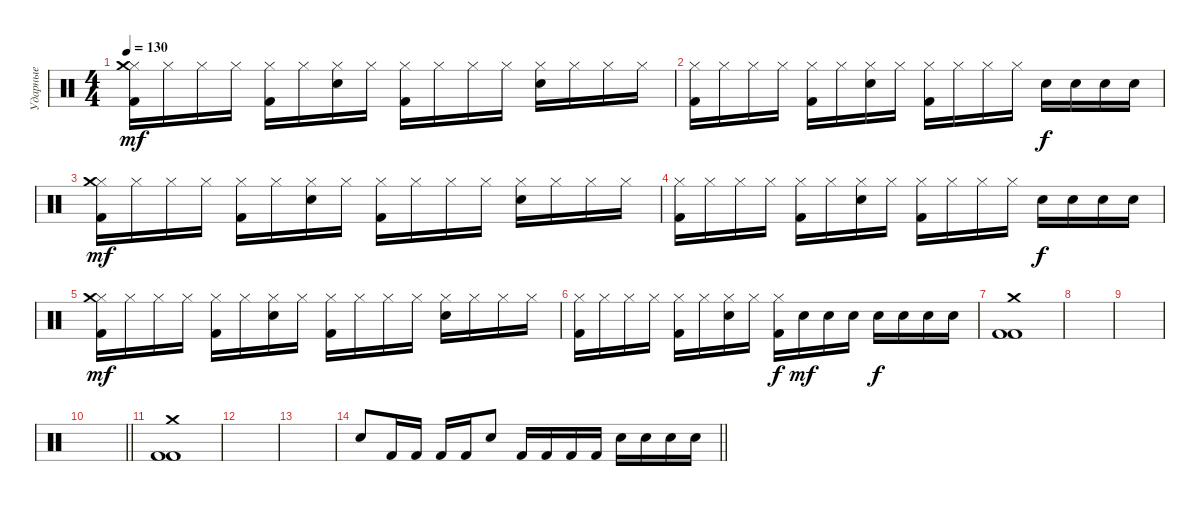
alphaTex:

\track ("Ударные" "Ударные") {instrument percussion}
\staff {score}
\articulation defaults
\ts (4 4)
\tempo 130
\clef neutral
\ks c
("Hi-Hat (closed)" "Crash medium (hit)" "Kick (hit) 2").16{dy mf} "Hi-Hat (closed)".16 "Hi-Hat (closed)".16 "Hi-Hat (closed)".16 ("Hi-Hat (closed)" "Kick (hit) 2").16 "Hi-Hat (closed)".16 ("Hi-Hat (closed)" "Electric Snare (hit)").16 "Hi-Hat (closed)".16 ("Hi-Hat (closed)" "Kick (hit) 2").16 "Hi-Hat (closed)".16 "Hi-Hat (closed)".16 "Hi-Hat (closed)".16 ("Hi-Hat (closed)" "Electric Snare (hit)").16 "Hi-Hat (closed)".16 "Hi-Hat (closed)".16 "Hi-Hat (closed)".16 |
("Hi-Hat (closed)" "Kick (hit) 2").16 "Hi-Hat (closed)".16 "Hi-Hat (closed)".16 "Hi-Hat (closed)".16 ("Hi-Hat (closed)" "Kick (hit) 2").16 "Hi-Hat (closed)".16 ("Hi-Hat (closed)" "Electric Snare (hit)").16 "Hi-Hat (closed)".16 ("Hi-Hat (closed)" "Kick (hit) 2").16 "Hi-Hat (closed)".16 "Hi-Hat (closed)".16 "Hi-Hat (closed)".16 "Electric Snare (hit)".16{dy f} "Electric Snare (hit)".16 "Electric Snare (hit)".16 "Electric Snare (hit)".16 |
("Hi-Hat (closed)" "Crash medium (hit)" "Kick (hit) 2").16{dy mf} "Hi-Hat (closed)".16 "Hi-Hat (closed)".16 "Hi-Hat (closed)".16 ("Hi-Hat (closed)" "Kick (hit) 2").16 "Hi-Hat (closed)".16 ("Hi-Hat (closed)" "Electric Snare (hit)").16 "Hi-Hat (closed)".16 ("Hi-Hat (closed)" "Kick (hit) 2").16 "Hi-Hat (closed)".16 "Hi-Hat (closed)".16 "Hi-Hat (closed)".16 ("Hi-Hat (closed)" "Electric Snare (hit)").16 "Hi-Hat (closed)".16 "Hi-Hat (closed)".16 "Hi-Hat (closed)".16 |
("Hi-Hat (closed)" "Kick (hit) 2").16 "Hi-Hat (closed)".16 "Hi-Hat (closed)".16 "Hi-Hat (closed)".16 ("Hi-Hat (closed)" "Kick (hit) 2").16 "Hi-Hat (closed)".16 ("Hi-Hat (closed)" "Electric Snare (hit)").16 "Hi-Hat (closed)".16 ("Hi-Hat (closed)" "Kick (hit) 2").16 "Hi-Hat (closed)".16 "Hi-Hat (closed)".16 "Hi-Hat (closed)".16 "Electric Snare (hit)".16{dy f} "Electric Snare (hit)".16 "Electric Snare (hit)".16 "Electric Snare (hit)".16 |
("Hi-Hat (closed)" "Crash medium (hit)" "Kick (hit) 2").16{dy mf} "Hi-Hat (closed)".16 "Hi-Hat (closed)".16 "Hi-Hat (closed)".16 ("Hi-Hat (closed)" "Kick (hit) 2").16 "Hi-Hat (closed)".16 ("Hi-Hat (closed)" "Electric Snare (hit)").16 "Hi-Hat (closed)".16 ("Hi-Hat (closed)" "Kick (hit) 2").16 "Hi-Hat (closed)".16 "Hi-Hat (closed)".16 "Hi-Hat (closed)".16 ("Hi-Hat (closed)" "Electric Snare (hit)").16 "Hi-Hat (closed)".16 "Hi-Hat (closed)".16 "Hi-Hat (closed)".16 |
("Hi-Hat (closed)" "Kick (hit) 2").16 "Hi-Hat (closed)".16 "Hi-Hat (closed)".16 "Hi-Hat (closed)".16 ("Hi-Hat (closed)" "Kick (hit) 2").16 "Hi-Hat (closed)".16 ("Hi-Hat (closed)" "Electric Snare (hit)").16 "Hi-Hat (closed)".16 ("Hi-Hat (closed)" "Kick (hit) 2").16{dy f} "Electric Snare (hit)".16{dy mf} "Electric Snare (hit)".16 "Electric Snare (hit)".16 "Electric Snare (hit)".16{dy f} "Electric Snare (hit)".16 "Electric Snare (hit)".16 "Electric Snare (hit)".16 |
("Kick (hit) 2" "Kick (hit) 2" "Crash medium (hit)").1 |
|
|
\barLineRight lightlight
|
("Kick (hit) 2" "Kick (hit) 2" "Crash medium (hit)").1 |
|
|
\barLineRight lightlight "Electric Snare (hit)".8 "Kick (hit) 2".16 "Kick (hit) 2".16 "Kick (hit) 2".16 "Kick (hit) 2".16 "Electric Snare (hit)".8 "Kick (hit) 2".16 "Kick (hit) 2".16 "Kick (hit) 2".16 "Kick (hit) 2".16 "Electric Snare (hit)".16 "Electric Snare (hit)".16 "Electric Snare (hit)".16 "Electric Snare (hit)".16
